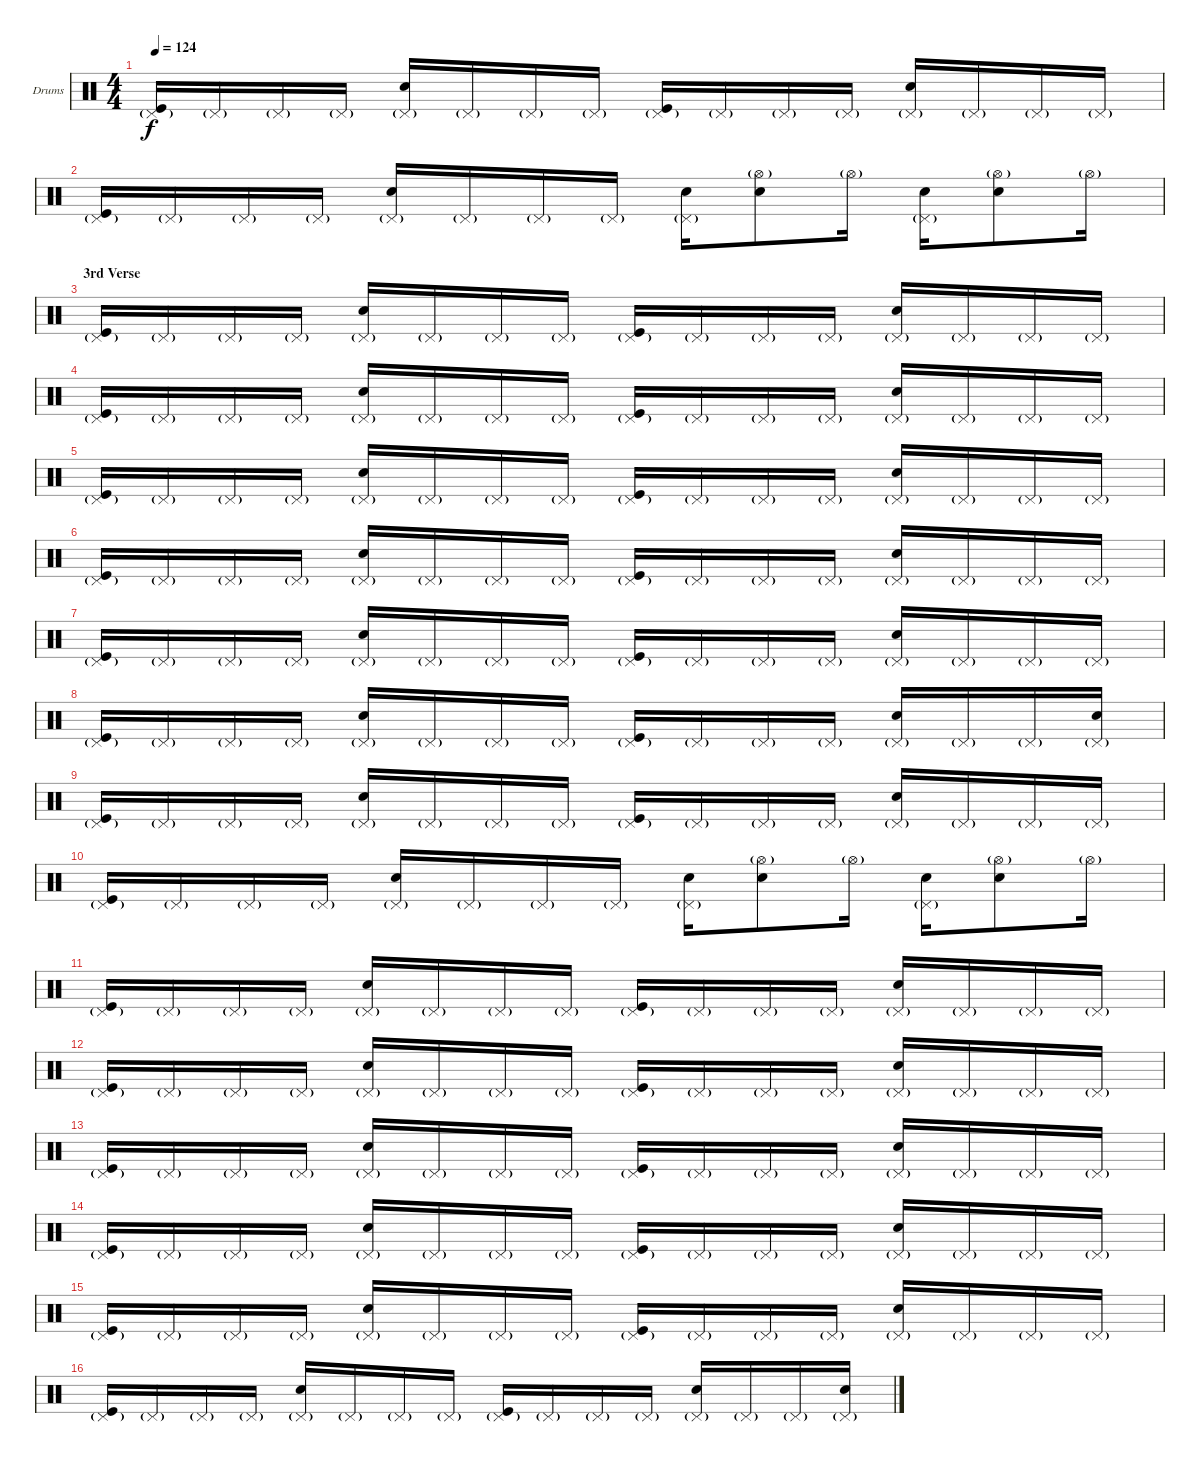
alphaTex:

\bracketExtendMode groupsimilarinstruments
\firstSystemTrackNameOrientation horizontal
\otherSystemsTrackNameOrientation horizontal
\track ("Drumkit" "Drums") {instrument percussion}
\staff {score}
\articulation defaults
\ts (4 4)
\tempo 124
\clef neutral
\ks c
("Kick (hit)" "Pedal Hi-Hat (hit)"{g}).16{dy f} "Pedal Hi-Hat (hit)"{g}.16 "Pedal Hi-Hat (hit)"{g}.16 "Pedal Hi-Hat (hit)"{g}.16 ("Snare (hit) 2" "Pedal Hi-Hat (hit)"{g}).16 "Pedal Hi-Hat (hit)"{g}.16 "Pedal Hi-Hat (hit)"{g}.16 "Pedal Hi-Hat (hit)"{g}.16 ("Kick (hit)" "Pedal Hi-Hat (hit)"{g}).16 "Pedal Hi-Hat (hit)"{g}.16 "Pedal Hi-Hat (hit)"{g}.16 "Pedal Hi-Hat (hit)"{g}.16 ("Snare (hit) 2" "Pedal Hi-Hat (hit)"{g}).16 "Pedal Hi-Hat (hit)"{g}.16 "Pedal Hi-Hat (hit)"{g}.16 "Pedal Hi-Hat (hit)"{g}.16 |
("Kick (hit)" "Pedal Hi-Hat (hit)"{g}).16 "Pedal Hi-Hat (hit)"{g}.16 "Pedal Hi-Hat (hit)"{g}.16 "Pedal Hi-Hat (hit)"{g}.16 ("Snare (hit) 2" "Pedal Hi-Hat (hit)"{g}).16 "Pedal Hi-Hat (hit)"{g}.16 "Pedal Hi-Hat (hit)"{g}.16 "Pedal Hi-Hat (hit)"{g}.16 ("Snare (hit) 2" "Pedal Hi-Hat (hit)"{g}).16 ("Snare (hit) 2" "Hi-Hat (open)"{g}).8 "Hi-Hat (open)"{g}.16 ("Snare (hit) 2" "Pedal Hi-Hat (hit)"{g}).16 ("Snare (hit) 2" "Hi-Hat (open)"{g}).8 "Hi-Hat (open)"{g}.16 |
\section ("" "3rd Verse")
("Kick (hit)" "Pedal Hi-Hat (hit)"{g}).16 "Pedal Hi-Hat (hit)"{g}.16 "Pedal Hi-Hat (hit)"{g}.16 "Pedal Hi-Hat (hit)"{g}.16 ("Snare (hit) 2" "Pedal Hi-Hat (hit)"{g}).16 "Pedal Hi-Hat (hit)"{g}.16 "Pedal Hi-Hat (hit)"{g}.16 "Pedal Hi-Hat (hit)"{g}.16 ("Kick (hit)" "Pedal Hi-Hat (hit)"{g}).16 "Pedal Hi-Hat (hit)"{g}.16 "Pedal Hi-Hat (hit)"{g}.16 "Pedal Hi-Hat (hit)"{g}.16 ("Snare (hit) 2" "Pedal Hi-Hat (hit)"{g}).16 "Pedal Hi-Hat (hit)"{g}.16 "Pedal Hi-Hat (hit)"{g}.16 "Pedal Hi-Hat (hit)"{g}.16 |
("Kick (hit)" "Pedal Hi-Hat (hit)"{g}).16 "Pedal Hi-Hat (hit)"{g}.16 "Pedal Hi-Hat (hit)"{g}.16 "Pedal Hi-Hat (hit)"{g}.16 ("Snare (hit) 2" "Pedal Hi-Hat (hit)"{g}).16 "Pedal Hi-Hat (hit)"{g}.16 "Pedal Hi-Hat (hit)"{g}.16 "Pedal Hi-Hat (hit)"{g}.16 ("Kick (hit)" "Pedal Hi-Hat (hit)"{g}).16 "Pedal Hi-Hat (hit)"{g}.16 "Pedal Hi-Hat (hit)"{g}.16 "Pedal Hi-Hat (hit)"{g}.16 ("Snare (hit) 2" "Pedal Hi-Hat (hit)"{g}).16 "Pedal Hi-Hat (hit)"{g}.16 "Pedal Hi-Hat (hit)"{g}.16 "Pedal Hi-Hat (hit)"{g}.16 |
("Kick (hit)" "Pedal Hi-Hat (hit)"{g}).16 "Pedal Hi-Hat (hit)"{g}.16 "Pedal Hi-Hat (hit)"{g}.16 "Pedal Hi-Hat (hit)"{g}.16 ("Snare (hit) 2" "Pedal Hi-Hat (hit)"{g}).16 "Pedal Hi-Hat (hit)"{g}.16 "Pedal Hi-Hat (hit)"{g}.16 "Pedal Hi-Hat (hit)"{g}.16 ("Kick (hit)" "Pedal Hi-Hat (hit)"{g}).16 "Pedal Hi-Hat (hit)"{g}.16 "Pedal Hi-Hat (hit)"{g}.16 "Pedal Hi-Hat (hit)"{g}.16 ("Snare (hit) 2" "Pedal Hi-Hat (hit)"{g}).16 "Pedal Hi-Hat (hit)"{g}.16 "Pedal Hi-Hat (hit)"{g}.16 "Pedal Hi-Hat (hit)"{g}.16 |
("Kick (hit)" "Pedal Hi-Hat (hit)"{g}).16 "Pedal Hi-Hat (hit)"{g}.16 "Pedal Hi-Hat (hit)"{g}.16 "Pedal Hi-Hat (hit)"{g}.16 ("Snare (hit) 2" "Pedal Hi-Hat (hit)"{g}).16 "Pedal Hi-Hat (hit)"{g}.16 "Pedal Hi-Hat (hit)"{g}.16 "Pedal Hi-Hat (hit)"{g}.16 ("Kick (hit)" "Pedal Hi-Hat (hit)"{g}).16 "Pedal Hi-Hat (hit)"{g}.16 "Pedal Hi-Hat (hit)"{g}.16 "Pedal Hi-Hat (hit)"{g}.16 ("Snare (hit) 2" "Pedal Hi-Hat (hit)"{g}).16 "Pedal Hi-Hat (hit)"{g}.16 "Pedal Hi-Hat (hit)"{g}.16 "Pedal Hi-Hat (hit)"{g}.16 |
("Kick (hit)" "Pedal Hi-Hat (hit)"{g}).16 "Pedal Hi-Hat (hit)"{g}.16 "Pedal Hi-Hat (hit)"{g}.16 "Pedal Hi-Hat (hit)"{g}.16 ("Snare (hit) 2" "Pedal Hi-Hat (hit)"{g}).16 "Pedal Hi-Hat (hit)"{g}.16 "Pedal Hi-Hat (hit)"{g}.16 "Pedal Hi-Hat (hit)"{g}.16 ("Kick (hit)" "Pedal Hi-Hat (hit)"{g}).16 "Pedal Hi-Hat (hit)"{g}.16 "Pedal Hi-Hat (hit)"{g}.16 "Pedal Hi-Hat (hit)"{g}.16 ("Snare (hit) 2" "Pedal Hi-Hat (hit)"{g}).16 "Pedal Hi-Hat (hit)"{g}.16 "Pedal Hi-Hat (hit)"{g}.16 "Pedal Hi-Hat (hit)"{g}.16 |
("Kick (hit)" "Pedal Hi-Hat (hit)"{g}).16 "Pedal Hi-Hat (hit)"{g}.16 "Pedal Hi-Hat (hit)"{g}.16 "Pedal Hi-Hat (hit)"{g}.16 ("Snare (hit) 2" "Pedal Hi-Hat (hit)"{g}).16 "Pedal Hi-Hat (hit)"{g}.16 "Pedal Hi-Hat (hit)"{g}.16 "Pedal Hi-Hat (hit)"{g}.16 ("Kick (hit)" "Pedal Hi-Hat (hit)"{g}).16 "Pedal Hi-Hat (hit)"{g}.16 "Pedal Hi-Hat (hit)"{g}.16 "Pedal Hi-Hat (hit)"{g}.16 ("Snare (hit) 2" "Pedal Hi-Hat (hit)"{g}).16 "Pedal Hi-Hat (hit)"{g}.16 "Pedal Hi-Hat (hit)"{g}.16 ("Snare (hit) 2" "Pedal Hi-Hat (hit)"{g}).16 |
("Kick (hit)" "Pedal Hi-Hat (hit)"{g}).16 "Pedal Hi-Hat (hit)"{g}.16 "Pedal Hi-Hat (hit)"{g}.16 "Pedal Hi-Hat (hit)"{g}.16 ("Snare (hit) 2" "Pedal Hi-Hat (hit)"{g}).16 "Pedal Hi-Hat (hit)"{g}.16 "Pedal Hi-Hat (hit)"{g}.16 "Pedal Hi-Hat (hit)"{g}.16 ("Kick (hit)" "Pedal Hi-Hat (hit)"{g}).16 "Pedal Hi-Hat (hit)"{g}.16 "Pedal Hi-Hat (hit)"{g}.16 "Pedal Hi-Hat (hit)"{g}.16 ("Snare (hit) 2" "Pedal Hi-Hat (hit)"{g}).16 "Pedal Hi-Hat (hit)"{g}.16 "Pedal Hi-Hat (hit)"{g}.16 "Pedal Hi-Hat (hit)"{g}.16 |
("Kick (hit)" "Pedal Hi-Hat (hit)"{g}).16 "Pedal Hi-Hat (hit)"{g}.16 "Pedal Hi-Hat (hit)"{g}.16 "Pedal Hi-Hat (hit)"{g}.16 ("Snare (hit) 2" "Pedal Hi-Hat (hit)"{g}).16 "Pedal Hi-Hat (hit)"{g}.16 "Pedal Hi-Hat (hit)"{g}.16 "Pedal Hi-Hat (hit)"{g}.16 ("Snare (hit) 2" "Pedal Hi-Hat (hit)"{g}).16 ("Snare (hit) 2" "Hi-Hat (open)"{g}).8 "Hi-Hat (open)"{g}.16 ("Snare (hit) 2" "Pedal Hi-Hat (hit)"{g}).16 ("Snare (hit) 2" "Hi-Hat (open)"{g}).8 "Hi-Hat (open)"{g}.16 |
("Kick (hit)" "Pedal Hi-Hat (hit)"{g}).16 "Pedal Hi-Hat (hit)"{g}.16 "Pedal Hi-Hat (hit)"{g}.16 "Pedal Hi-Hat (hit)"{g}.16 ("Snare (hit) 2" "Pedal Hi-Hat (hit)"{g}).16 "Pedal Hi-Hat (hit)"{g}.16 "Pedal Hi-Hat (hit)"{g}.16 "Pedal Hi-Hat (hit)"{g}.16 ("Kick (hit)" "Pedal Hi-Hat (hit)"{g}).16 "Pedal Hi-Hat (hit)"{g}.16 "Pedal Hi-Hat (hit)"{g}.16 "Pedal Hi-Hat (hit)"{g}.16 ("Snare (hit) 2" "Pedal Hi-Hat (hit)"{g}).16 "Pedal Hi-Hat (hit)"{g}.16 "Pedal Hi-Hat (hit)"{g}.16 "Pedal Hi-Hat (hit)"{g}.16 |
("Kick (hit)" "Pedal Hi-Hat (hit)"{g}).16 "Pedal Hi-Hat (hit)"{g}.16 "Pedal Hi-Hat (hit)"{g}.16 "Pedal Hi-Hat (hit)"{g}.16 ("Snare (hit) 2" "Pedal Hi-Hat (hit)"{g}).16 "Pedal Hi-Hat (hit)"{g}.16 "Pedal Hi-Hat (hit)"{g}.16 "Pedal Hi-Hat (hit)"{g}.16 ("Kick (hit)" "Pedal Hi-Hat (hit)"{g}).16 "Pedal Hi-Hat (hit)"{g}.16 "Pedal Hi-Hat (hit)"{g}.16 "Pedal Hi-Hat (hit)"{g}.16 ("Snare (hit) 2" "Pedal Hi-Hat (hit)"{g}).16 "Pedal Hi-Hat (hit)"{g}.16 "Pedal Hi-Hat (hit)"{g}.16 "Pedal Hi-Hat (hit)"{g}.16 |
("Kick (hit)" "Pedal Hi-Hat (hit)"{g}).16 "Pedal Hi-Hat (hit)"{g}.16 "Pedal Hi-Hat (hit)"{g}.16 "Pedal Hi-Hat (hit)"{g}.16 ("Snare (hit) 2" "Pedal Hi-Hat (hit)"{g}).16 "Pedal Hi-Hat (hit)"{g}.16 "Pedal Hi-Hat (hit)"{g}.16 "Pedal Hi-Hat (hit)"{g}.16 ("Kick (hit)" "Pedal Hi-Hat (hit)"{g}).16 "Pedal Hi-Hat (hit)"{g}.16 "Pedal Hi-Hat (hit)"{g}.16 "Pedal Hi-Hat (hit)"{g}.16 ("Snare (hit) 2" "Pedal Hi-Hat (hit)"{g}).16 "Pedal Hi-Hat (hit)"{g}.16 "Pedal Hi-Hat (hit)"{g}.16 "Pedal Hi-Hat (hit)"{g}.16 |
("Kick (hit)" "Pedal Hi-Hat (hit)"{g}).16 "Pedal Hi-Hat (hit)"{g}.16 "Pedal Hi-Hat (hit)"{g}.16 "Pedal Hi-Hat (hit)"{g}.16 ("Snare (hit) 2" "Pedal Hi-Hat (hit)"{g}).16 "Pedal Hi-Hat (hit)"{g}.16 "Pedal Hi-Hat (hit)"{g}.16 "Pedal Hi-Hat (hit)"{g}.16 ("Kick (hit)" "Pedal Hi-Hat (hit)"{g}).16 "Pedal Hi-Hat (hit)"{g}.16 "Pedal Hi-Hat (hit)"{g}.16 "Pedal Hi-Hat (hit)"{g}.16 ("Snare (hit) 2" "Pedal Hi-Hat (hit)"{g}).16 "Pedal Hi-Hat (hit)"{g}.16 "Pedal Hi-Hat (hit)"{g}.16 "Pedal Hi-Hat (hit)"{g}.16 |
("Kick (hit)" "Pedal Hi-Hat (hit)"{g}).16 "Pedal Hi-Hat (hit)"{g}.16 "Pedal Hi-Hat (hit)"{g}.16 "Pedal Hi-Hat (hit)"{g}.16 ("Snare (hit) 2" "Pedal Hi-Hat (hit)"{g}).16 "Pedal Hi-Hat (hit)"{g}.16 "Pedal Hi-Hat (hit)"{g}.16 "Pedal Hi-Hat (hit)"{g}.16 ("Kick (hit)" "Pedal Hi-Hat (hit)"{g}).16 "Pedal Hi-Hat (hit)"{g}.16 "Pedal Hi-Hat (hit)"{g}.16 "Pedal Hi-Hat (hit)"{g}.16 ("Snare (hit) 2" "Pedal Hi-Hat (hit)"{g}).16 "Pedal Hi-Hat (hit)"{g}.16 "Pedal Hi-Hat (hit)"{g}.16 "Pedal Hi-Hat (hit)"{g}.16 |
("Kick (hit)" "Pedal Hi-Hat (hit)"{g}).16 "Pedal Hi-Hat (hit)"{g}.16 "Pedal Hi-Hat (hit)"{g}.16 "Pedal Hi-Hat (hit)"{g}.16 ("Snare (hit) 2" "Pedal Hi-Hat (hit)"{g}).16 "Pedal Hi-Hat (hit)"{g}.16 "Pedal Hi-Hat (hit)"{g}.16 "Pedal Hi-Hat (hit)"{g}.16 ("Kick (hit)" "Pedal Hi-Hat (hit)"{g}).16 "Pedal Hi-Hat (hit)"{g}.16 "Pedal Hi-Hat (hit)"{g}.16 "Pedal Hi-Hat (hit)"{g}.16 ("Snare (hit) 2" "Pedal Hi-Hat (hit)"{g}).16 "Pedal Hi-Hat (hit)"{g}.16 "Pedal Hi-Hat (hit)"{g}.16 ("Snare (hit) 2" "Pedal Hi-Hat (hit)"{g}).16
